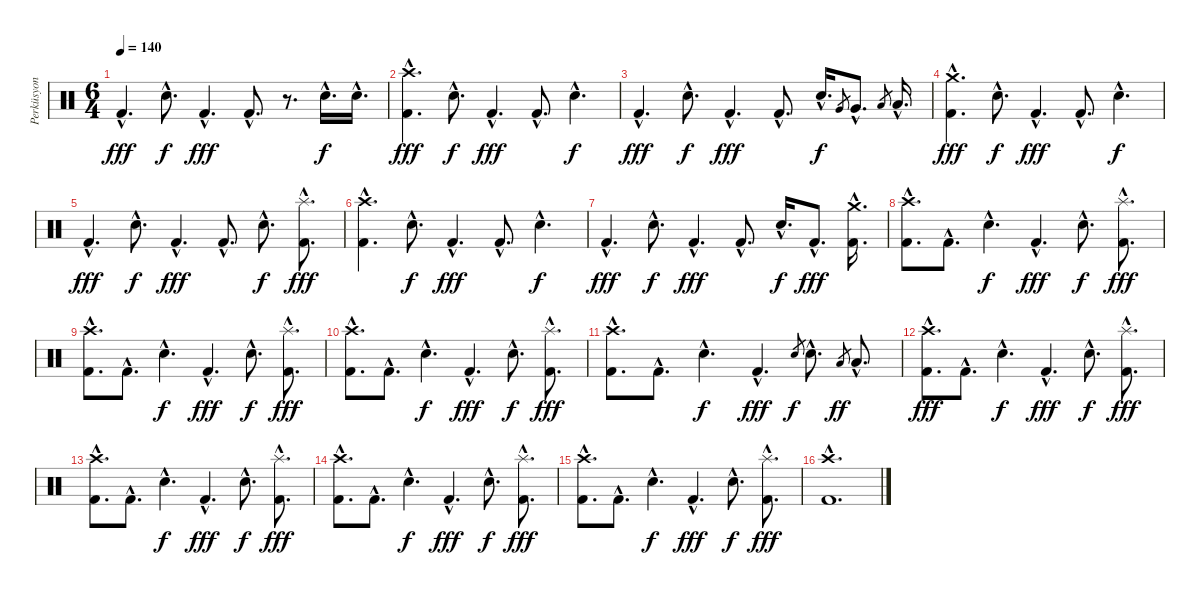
\track ("Perküsyon" "Perküsyon") {instrument percussion}
\staff {score}
\articulation defaults
\ts (6 4)
\tempo 140
\clef neutral
\ks c "Kick (hit) 2"{hac}.4{d dy fff} "Electric Snare (hit)"{hac}.8{d dy f} "Kick (hit) 2"{hac}.4{d dy fff} "Kick (hit) 2"{hac}.8{d}
r.8{d} "Snare (hit) 2"{hac}.16{d dy f} "Electric Snare (hit)"{hac}.16{d} |
("Crash high (hit)"{hac} "Kick (hit) 2"{hac}).4{d dy fff} "Electric Snare (hit)"{hac}.8{d dy f} "Kick (hit) 2"{hac}.4{d dy fff} "Kick (hit) 2"{hac}.8{d} "Electric Snare (hit)"{hac}.4{d dy f} |
"Kick (hit) 2"{hac}.4{d dy fff} "Electric Snare (hit)"{hac}.8{d dy f} "Kick (hit) 2"{hac}.4{d dy fff} "Kick (hit) 2"{hac}.8{d} "Electric Snare (hit)"{hac}.16{d dy f} "Very Low Tom (hit)".8{gr} "Very Low Tom (hit)"{hac}.8{d} "Low Floor Tom (hit)".8{gr} "Low Floor Tom (hit)"{hac}.16{d} |
("Crash medium (hit)"{hac} "Kick (hit) 2"{hac}).4{d dy fff volume 14} "Electric Snare (hit)"{hac}.8{d dy f} "Kick (hit) 2"{hac}.4{d dy fff} "Kick (hit) 2"{hac}.8{d} "Electric Snare (hit)"{hac}.4{d dy f} |
"Kick (hit) 2"{hac}.4{d dy fff} "Electric Snare (hit)"{hac}.8{d dy f} "Kick (hit) 2"{hac}.4{d dy fff} "Kick (hit) 2"{hac}.8{d} "Electric Snare (hit)"{hac}.8{d dy f} ("Splash (hit)"{hac} "Kick (hit) 2"{hac}).8{d dy fff} |
("Crash high (hit)"{hac} "Kick (hit) 2"{hac}).4{d} "Electric Snare (hit)"{hac}.8{d dy f} "Kick (hit) 2"{hac}.4{d dy fff} "Kick (hit) 2"{hac}.8{d} "Electric Snare (hit)"{hac}.4{d dy f} |
"Kick (hit) 2"{hac}.4{d dy fff} "Electric Snare (hit)"{hac}.8{d dy f} "Kick (hit) 2"{hac}.4{d dy fff} "Kick (hit) 2"{hac}.8{d} "Electric Snare (hit)"{hac}.16{d dy f} "Kick (hit) 2"{hac}.8{d dy fff} ("Crash medium (hit)"{hac} "Kick (hit) 2"{hac}).16{d} |
("Crash high (hit)"{hac} "Kick (hit) 2"{hac}).8{d} "Kick (hit) 2"{hac}.8{d} "Snare (hit) 2"{hac}.4{d dy f} "Kick (hit) 2"{hac}.4{d dy fff} "Snare (hit) 2"{hac}.8{d dy f} ("Splash (hit)"{hac} "Kick (hit) 2"{hac}).8{d dy fff} |
("Crash high (hit)"{hac} "Kick (hit) 2"{hac}).8{d} "Kick (hit) 2"{hac}.8{d} "Snare (hit) 2"{hac}.4{d dy f} "Kick (hit) 2"{hac}.4{d dy fff} "Snare (hit) 2"{hac}.8{d dy f} ("Splash (hit)"{hac} "Kick (hit) 2"{hac}).8{d dy fff} |
("Crash high (hit)"{hac} "Kick (hit) 2"{hac}).8{d} "Kick (hit) 2"{hac}.8{d} "Snare (hit) 2"{hac}.4{d dy f} "Kick (hit) 2"{hac}.4{d dy fff} "Snare (hit) 2"{hac}.8{d dy f} ("Splash (hit)"{hac} "Kick (hit) 2"{hac}).8{d dy fff} |
("Crash high (hit)"{hac} "Kick (hit) 2"{hac}).8{d} "Kick (hit) 2"{hac}.8{d} "Snare (hit) 2"{hac}.4{d dy f} "Kick (hit) 2"{hac}.4{d dy fff} "Snare (hit) 2".8{gr dy f} "Snare (hit) 2"{hac}.8{d} "Low Floor Tom (hit)".8{gr dy ff} "Low Floor Tom (hit)"{hac}.8{d} |
("Crash high (hit)"{hac} "Kick (hit) 2"{hac}).8{d dy fff} "Kick (hit) 2"{hac}.8{d} "Snare (hit) 2"{hac}.4{d dy f} "Kick (hit) 2"{hac}.4{d dy fff} "Snare (hit) 2"{hac}.8{d dy f} ("Splash (hit)"{hac} "Kick (hit) 2"{hac}).8{d dy fff} |
("Crash high (hit)"{hac} "Kick (hit) 2"{hac}).8{d} "Kick (hit) 2"{hac}.8{d} "Snare (hit) 2"{hac}.4{d dy f} "Kick (hit) 2"{hac}.4{d dy fff} "Snare (hit) 2"{hac}.8{d dy f} ("Splash (hit)"{hac} "Kick (hit) 2"{hac}).8{d dy fff} |
("Crash high (hit)"{hac} "Kick (hit) 2"{hac}).8{d} "Kick (hit) 2"{hac}.8{d} "Snare (hit) 2"{hac}.4{d dy f} "Kick (hit) 2"{hac}.4{d dy fff} "Snare (hit) 2"{hac}.8{d dy f} ("Splash (hit)"{hac} "Kick (hit) 2"{hac}).8{d dy fff} |
("Crash high (hit)"{hac} "Kick (hit) 2"{hac}).8{d} "Kick (hit) 2"{hac}.8{d} "Snare (hit) 2"{hac}.4{d dy f} "Kick (hit) 2"{hac}.4{d dy fff} "Snare (hit) 2"{hac}.8{d dy f} ("Splash (hit)"{hac} "Kick (hit) 2"{hac}).8{d dy fff} |
("Crash high (hit)"{hac} "Kick (hit) 2"{hac}).1{d}
